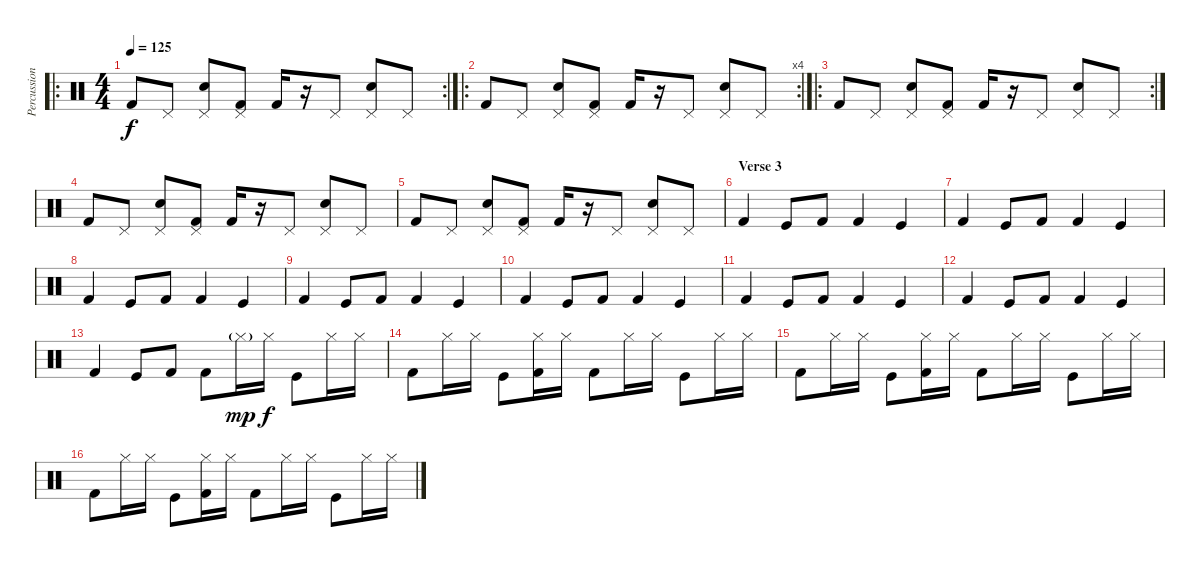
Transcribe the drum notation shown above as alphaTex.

\track ("Percussions" "Percussion") {instrument percussion}
\staff {score}
\articulation defaults
\ro
\rc 2
\ts (4 4)
\tempo 125
\clef neutral
\ks c "Kick (hit) 2".8{dy f} "Pedal Hi-Hat (hit)".8
("Pedal Hi-Hat (hit)" "Electric Snare (hit)").8 ("Pedal Hi-Hat (hit)" "Kick (hit) 2").8 "Kick (hit) 2".16 r.16 "Pedal Hi-Hat (hit)".8 ("Pedal Hi-Hat (hit)" "Electric Snare (hit)").8 "Pedal Hi-Hat (hit)".8 |
\ro
\rc 4 "Kick (hit) 2".8 "Pedal Hi-Hat (hit)".8
("Pedal Hi-Hat (hit)" "Electric Snare (hit)").8 ("Pedal Hi-Hat (hit)" "Kick (hit) 2").8 "Kick (hit) 2".16 r.16 "Pedal Hi-Hat (hit)".8 ("Pedal Hi-Hat (hit)" "Electric Snare (hit)").8 "Pedal Hi-Hat (hit)".8 |
\ro
\rc 2 "Kick (hit) 2".8 "Pedal Hi-Hat (hit)".8
("Pedal Hi-Hat (hit)" "Electric Snare (hit)").8 ("Pedal Hi-Hat (hit)" "Kick (hit) 2").8 "Kick (hit) 2".16 r.16 "Pedal Hi-Hat (hit)".8 ("Pedal Hi-Hat (hit)" "Electric Snare (hit)").8 "Pedal Hi-Hat (hit)".8 |
"Kick (hit) 2".8 "Pedal Hi-Hat (hit)".8 ("Pedal Hi-Hat (hit)" "Electric Snare (hit)").8 ("Pedal Hi-Hat (hit)" "Kick (hit) 2").8 "Kick (hit) 2".16 r.16 "Pedal Hi-Hat (hit)".8 ("Pedal Hi-Hat (hit)" "Electric Snare (hit)").8 "Pedal Hi-Hat (hit)".8 |
"Kick (hit) 2".8 "Pedal Hi-Hat (hit)".8 ("Pedal Hi-Hat (hit)" "Electric Snare (hit)").8 ("Pedal Hi-Hat (hit)" "Kick (hit) 2").8 "Kick (hit) 2".16 r.16 "Pedal Hi-Hat (hit)".8 ("Pedal Hi-Hat (hit)" "Electric Snare (hit)").8 "Pedal Hi-Hat (hit)".8 |
\section ("" "Verse 3")
"Kick (hit) 2".4{volume 10} "Kick (hit)".8 "Kick (hit) 2".8 "Kick (hit) 2".4 "Kick (hit)".4 |
"Kick (hit) 2".4{volume 10} "Kick (hit)".8 "Kick (hit) 2".8 "Kick (hit) 2".4 "Kick (hit)".4 |
"Kick (hit) 2".4{volume 10} "Kick (hit)".8 "Kick (hit) 2".8 "Kick (hit) 2".4 "Kick (hit)".4 |
"Kick (hit) 2".4{volume 10} "Kick (hit)".8 "Kick (hit) 2".8 "Kick (hit) 2".4 "Kick (hit)".4 |
"Kick (hit) 2".4{volume 10} "Kick (hit)".8 "Kick (hit) 2".8 "Kick (hit) 2".4 "Kick (hit)".4 |
"Kick (hit) 2".4{volume 10} "Kick (hit)".8 "Kick (hit) 2".8 "Kick (hit) 2".4 "Kick (hit)".4 |
"Kick (hit) 2".4{volume 10} "Kick (hit)".8 "Kick (hit) 2".8 "Kick (hit) 2".4 "Kick (hit)".4 |
"Kick (hit) 2".4{volume 10} "Kick (hit)".8 "Kick (hit) 2".8 "Kick (hit) 2".8 "Hi-Hat (closed)"{g}.16{dy mp} "Hi-Hat (closed)".16{dy f} "Kick (hit)".8 "Hi-Hat (closed)".16 "Hi-Hat (closed)".16 |
"Kick (hit) 2".8{volume 10} "Hi-Hat (closed)".16 "Hi-Hat (closed)".16 "Kick (hit)".8 ("Hi-Hat (closed)" "Kick (hit) 2").16 "Hi-Hat (closed)".16 "Kick (hit) 2".8 "Hi-Hat (closed)".16 "Hi-Hat (closed)".16 "Kick (hit)".8 "Hi-Hat (closed)".16 "Hi-Hat (closed)".16 |
"Kick (hit) 2".8{volume 10} "Hi-Hat (closed)".16 "Hi-Hat (closed)".16 "Kick (hit)".8 ("Hi-Hat (closed)" "Kick (hit) 2").16 "Hi-Hat (closed)".16 "Kick (hit) 2".8 "Hi-Hat (closed)".16 "Hi-Hat (closed)".16 "Kick (hit)".8 "Hi-Hat (closed)".16 "Hi-Hat (closed)".16 |
"Kick (hit) 2".8{volume 10} "Hi-Hat (closed)".16 "Hi-Hat (closed)".16 "Kick (hit)".8 ("Hi-Hat (closed)" "Kick (hit) 2").16 "Hi-Hat (closed)".16 "Kick (hit) 2".8 "Hi-Hat (closed)".16 "Hi-Hat (closed)".16 "Kick (hit)".8 "Hi-Hat (closed)".16 "Hi-Hat (closed)".16
